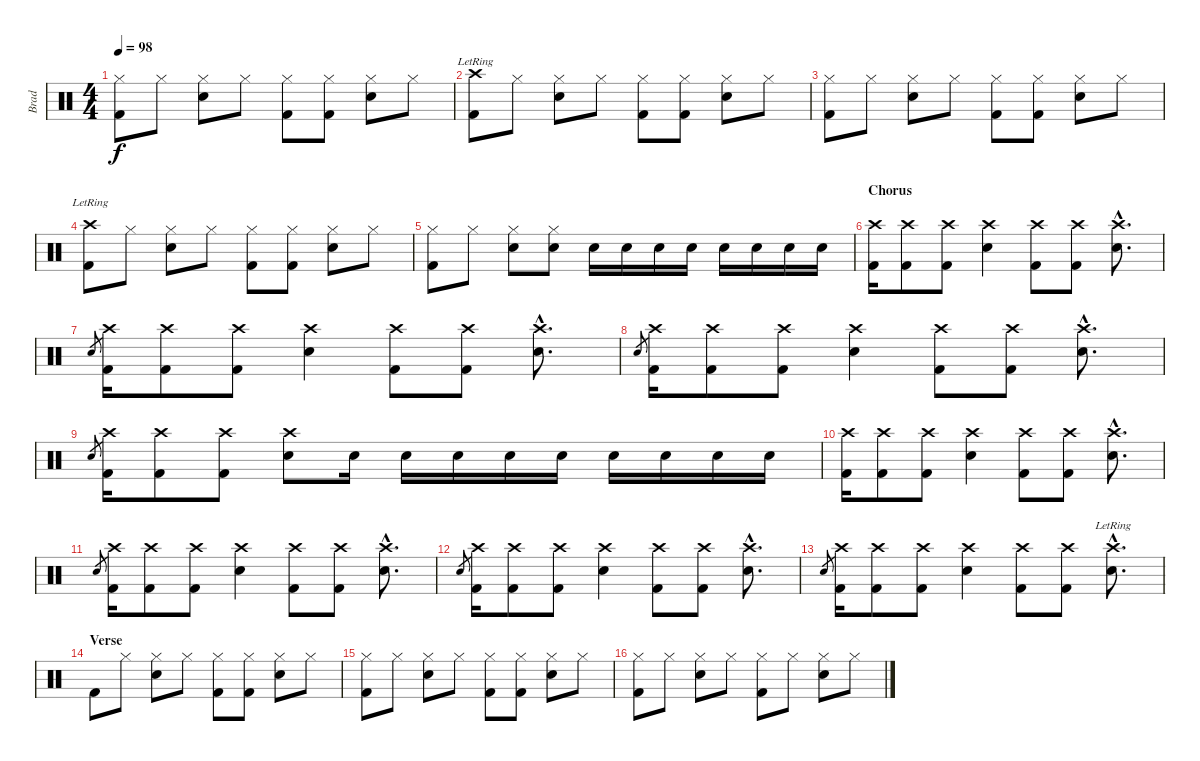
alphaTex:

\track ("Brad" "Brad") {instrument percussion}
\staff {score}
\articulation defaults
\ts (4 4)
\tempo 98
\clef neutral
\ks c
("Hi-Hat (closed)" "Kick (hit) 2").8{dy f} "Hi-Hat (closed)".8 ("Hi-Hat (closed)" "Snare (hit) 2").8 "Hi-Hat (closed)".8 ("Hi-Hat (closed)" "Kick (hit) 2").8 ("Hi-Hat (closed)" "Kick (hit) 2").8 ("Hi-Hat (closed)" "Snare (hit) 2").8 "Hi-Hat (closed)".8 |
("Crash high (hit)"{lr} "Kick (hit) 2").8 "Hi-Hat (closed)".8 ("Hi-Hat (closed)" "Snare (hit) 2").8 "Hi-Hat (closed)".8 ("Hi-Hat (closed)" "Kick (hit) 2").8 ("Hi-Hat (closed)" "Kick (hit) 2").8 ("Hi-Hat (closed)" "Snare (hit) 2").8 "Hi-Hat (closed)".8 |
("Hi-Hat (closed)" "Kick (hit) 2").8 "Hi-Hat (closed)".8 ("Hi-Hat (closed)" "Snare (hit) 2").8 "Hi-Hat (closed)".8 ("Hi-Hat (closed)" "Kick (hit) 2").8 ("Hi-Hat (closed)" "Kick (hit) 2").8 ("Hi-Hat (closed)" "Snare (hit) 2").8 "Hi-Hat (closed)".8 |
("Crash high (hit)"{lr} "Kick (hit) 2").8 "Hi-Hat (closed)".8 ("Hi-Hat (closed)" "Snare (hit) 2").8 "Hi-Hat (closed)".8 ("Hi-Hat (closed)" "Kick (hit) 2").8 ("Hi-Hat (closed)" "Kick (hit) 2").8 ("Hi-Hat (closed)" "Snare (hit) 2").8 "Hi-Hat (closed)".8 |
("Hi-Hat (closed)" "Kick (hit) 2").8 "Hi-Hat (closed)".8 ("Hi-Hat (closed)" "Snare (hit) 2").8 ("Hi-Hat (closed)" "Snare (hit) 2").8 "Snare (hit) 2".16 "Snare (hit) 2".16 "Snare (hit) 2".16 "Snare (hit) 2".16 "Snare (hit) 2".16 "Snare (hit) 2".16 "Snare (hit) 2".16 "Snare (hit) 2".16 |
\section ("" "Chorus")
("Crash high (hit)" "Kick (hit) 2").16 ("Crash high (hit)" "Kick (hit) 2").8 ("Crash high (hit)" "Kick (hit) 2").8 ("Crash high (hit)" "Snare (hit) 2").4 ("Crash high (hit)" "Kick (hit) 2").8 ("Crash high (hit)" "Kick (hit) 2").8 ("Crash high (hit)"{hac} "Snare (hit) 2"{hac}).8{d} |
"Snare (hit) 2".8{gr} ("Crash high (hit)" "Kick (hit) 2").16 ("Crash high (hit)" "Kick (hit) 2").8 ("Crash high (hit)" "Kick (hit) 2").8 ("Crash high (hit)" "Snare (hit) 2").4 ("Crash high (hit)" "Kick (hit) 2").8 ("Crash high (hit)" "Kick (hit) 2").8 ("Crash high (hit)"{hac} "Snare (hit) 2"{hac}).8{d} |
"Snare (hit) 2".8{gr} ("Crash high (hit)" "Kick (hit) 2").16 ("Crash high (hit)" "Kick (hit) 2").8 ("Crash high (hit)" "Kick (hit) 2").8 ("Crash high (hit)" "Snare (hit) 2").4 ("Crash high (hit)" "Kick (hit) 2").8 ("Crash high (hit)" "Kick (hit) 2").8 ("Crash high (hit)"{hac} "Snare (hit) 2"{hac}).8{d} |
"Snare (hit) 2".8{gr} ("Crash high (hit)" "Kick (hit) 2").16 ("Crash high (hit)" "Kick (hit) 2").8 ("Crash high (hit)" "Kick (hit) 2").8 ("Crash high (hit)" "Snare (hit) 2").8 "Snare (hit) 2".16 "Snare (hit) 2".16 "Snare (hit) 2".16 "Snare (hit) 2".16 "Snare (hit) 2".16 "Snare (hit) 2".16 "Snare (hit) 2".16 "Snare (hit) 2".16 "Snare (hit) 2".16 |
("Crash high (hit)" "Kick (hit) 2").16 ("Crash high (hit)" "Kick (hit) 2").8 ("Crash high (hit)" "Kick (hit) 2").8 ("Crash high (hit)" "Snare (hit) 2").4 ("Crash high (hit)" "Kick (hit) 2").8 ("Crash high (hit)" "Kick (hit) 2").8 ("Crash high (hit)"{hac} "Snare (hit) 2"{hac}).8{d} |
"Snare (hit) 2".8{gr} ("Crash high (hit)" "Kick (hit) 2").16 ("Crash high (hit)" "Kick (hit) 2").8 ("Crash high (hit)" "Kick (hit) 2").8 ("Crash high (hit)" "Snare (hit) 2").4 ("Crash high (hit)" "Kick (hit) 2").8 ("Crash high (hit)" "Kick (hit) 2").8 ("Crash high (hit)"{hac} "Snare (hit) 2"{hac}).8{d} |
"Snare (hit) 2".8{gr} ("Crash high (hit)" "Kick (hit) 2").16 ("Crash high (hit)" "Kick (hit) 2").8 ("Crash high (hit)" "Kick (hit) 2").8 ("Crash high (hit)" "Snare (hit) 2").4 ("Crash high (hit)" "Kick (hit) 2").8 ("Crash high (hit)" "Kick (hit) 2").8 ("Crash high (hit)"{hac} "Snare (hit) 2"{hac}).8{d} |
"Snare (hit) 2".8{gr} ("Crash high (hit)" "Kick (hit) 2").16 ("Crash high (hit)" "Kick (hit) 2").8 ("Crash high (hit)" "Kick (hit) 2").8 ("Crash high (hit)" "Snare (hit) 2").4 ("Crash high (hit)" "Kick (hit) 2").8 ("Crash high (hit)" "Kick (hit) 2").8 ("Crash high (hit)"{hac lr} "Snare (hit) 2"{hac}).8{d} |
\section ("" "Verse")
"Kick (hit) 2".8 "Hi-Hat (closed)".8 ("Hi-Hat (closed)" "Snare (hit) 2").8 "Hi-Hat (closed)".8 ("Hi-Hat (closed)" "Kick (hit) 2").8 ("Hi-Hat (closed)" "Kick (hit) 2").8 ("Hi-Hat (closed)" "Snare (hit) 2").8 "Hi-Hat (closed)".8 |
("Hi-Hat (closed)" "Kick (hit) 2").8 "Hi-Hat (closed)".8 ("Hi-Hat (closed)" "Snare (hit) 2").8 "Hi-Hat (closed)".8 ("Hi-Hat (closed)" "Kick (hit) 2").8 ("Hi-Hat (closed)" "Kick (hit) 2").8 ("Hi-Hat (closed)" "Snare (hit) 2").8 "Hi-Hat (closed)".8 |
("Hi-Hat (closed)" "Kick (hit) 2").8 "Hi-Hat (closed)".8 ("Hi-Hat (closed)" "Snare (hit) 2").8 "Hi-Hat (closed)".8 ("Hi-Hat (closed)" "Kick (hit) 2").8 "Hi-Hat (closed)".8 ("Hi-Hat (closed)" "Snare (hit) 2").8 "Hi-Hat (closed)".8
